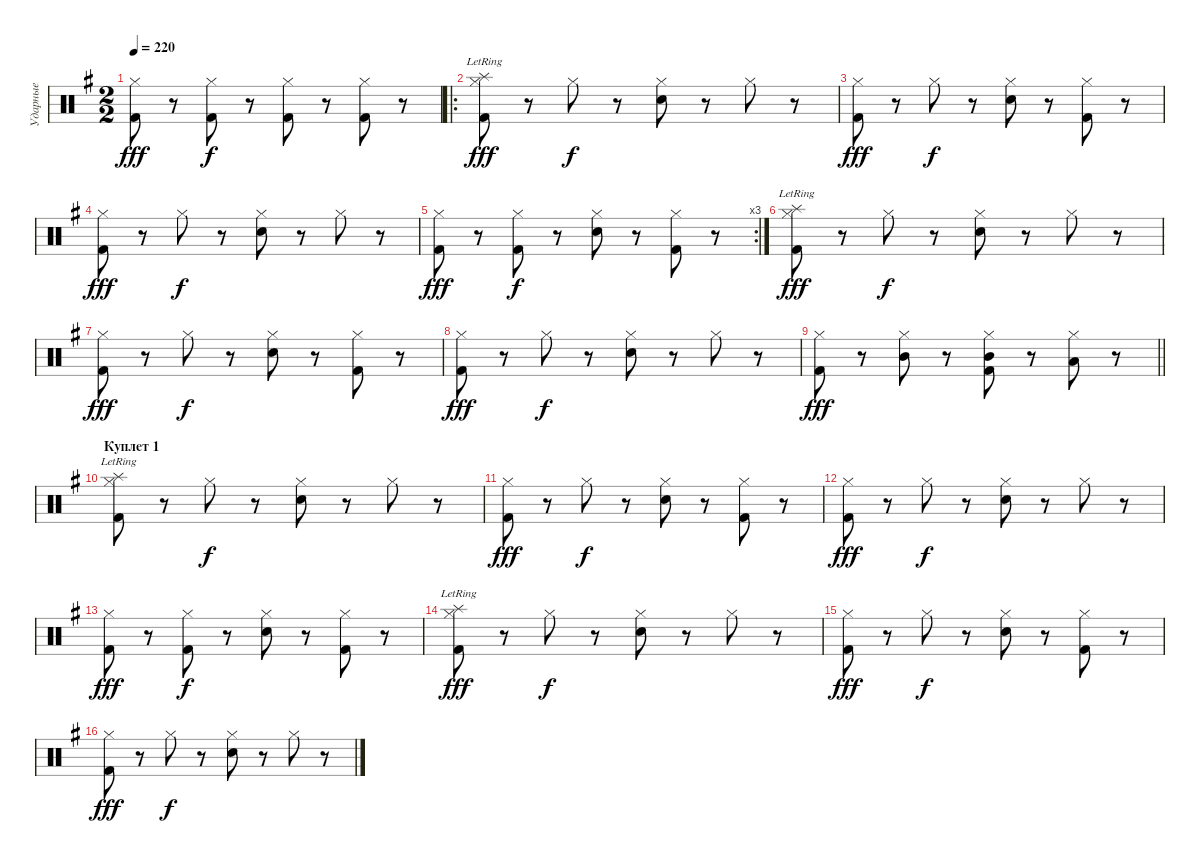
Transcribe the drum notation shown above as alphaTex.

\track ("Ударные" "Ударные") {instrument percussion}
\staff {score}
\articulation defaults
\ts (2 2)
\tempo 220
\clef neutral
\ks eminor
("Hi-Hat (closed)" "Kick (hit) 2").8{dy fff} r.8 ("Hi-Hat (closed)" "Kick (hit) 2").8{dy f} r.8 ("Hi-Hat (closed)" "Kick (hit) 2").8 r.8 ("Hi-Hat (closed)" "Kick (hit) 2").8 r.8 |
\ro
("Hi-Hat (closed)" "Splash (hit)"{lr} "Kick (hit) 2").8{dy fff} r.8 "Hi-Hat (closed)".8{dy f} r.8 ("Hi-Hat (closed)" "Snare (hit) 2").8 r.8 "Hi-Hat (closed)".8 r.8 |
("Hi-Hat (closed)" "Kick (hit) 2").8{dy fff} r.8 "Hi-Hat (closed)".8{dy f} r.8 ("Hi-Hat (closed)" "Snare (hit) 2").8 r.8 ("Hi-Hat (closed)" "Kick (hit) 2").8 r.8 |
("Hi-Hat (closed)" "Kick (hit) 2").8{dy fff} r.8 "Hi-Hat (closed)".8{dy f} r.8 ("Hi-Hat (closed)" "Snare (hit) 2").8 r.8 "Hi-Hat (closed)".8 r.8 |
\rc 3
("Hi-Hat (closed)" "Kick (hit) 2").8{dy fff} r.8 ("Hi-Hat (closed)" "Kick (hit) 2").8{dy f} r.8 ("Hi-Hat (closed)" "Snare (hit) 2").8 r.8 ("Hi-Hat (closed)" "Kick (hit) 2").8 r.8 |
("Hi-Hat (closed)" "Splash (hit)"{lr} "Kick (hit) 2").8{dy fff} r.8 "Hi-Hat (closed)".8{dy f} r.8 ("Hi-Hat (closed)" "Snare (hit) 2").8 r.8 "Hi-Hat (closed)".8 r.8 |
("Hi-Hat (closed)" "Kick (hit) 2").8{dy fff} r.8 "Hi-Hat (closed)".8{dy f} r.8 ("Hi-Hat (closed)" "Snare (hit) 2").8 r.8 ("Hi-Hat (closed)" "Kick (hit) 2").8 r.8 |
("Hi-Hat (closed)" "Kick (hit) 2").8{dy fff} r.8 "Hi-Hat (closed)".8{dy f} r.8 ("Hi-Hat (closed)" "Snare (hit) 2").8 r.8 "Hi-Hat (closed)".8 r.8 |
\barLineRight lightlight
("Hi-Hat (closed)" "Kick (hit) 2").8{dy fff} r.8 ("Hi-Hat (closed)" "Mid Tom (hit)").8 r.8 ("Hi-Hat (closed)" "Mid Tom (hit)" "Kick (hit) 2").8 r.8 ("Hi-Hat (closed)" "Low Tom (hit)").8 r.8 |
\section ("" "Куплет 1")
("Hi-Hat (closed)" "Splash (hit)"{lr} "Kick (hit) 2").8 r.8 "Hi-Hat (closed)".8{dy f} r.8 ("Hi-Hat (closed)" "Snare (hit) 2").8 r.8 "Hi-Hat (closed)".8 r.8 |
("Hi-Hat (closed)" "Kick (hit) 2").8{dy fff} r.8 "Hi-Hat (closed)".8{dy f} r.8 ("Hi-Hat (closed)" "Snare (hit) 2").8 r.8 ("Hi-Hat (closed)" "Kick (hit) 2").8 r.8 |
("Hi-Hat (closed)" "Kick (hit) 2").8{dy fff} r.8 "Hi-Hat (closed)".8{dy f} r.8 ("Hi-Hat (closed)" "Snare (hit) 2").8 r.8 "Hi-Hat (closed)".8 r.8 |
("Hi-Hat (closed)" "Kick (hit) 2").8{dy fff} r.8 ("Hi-Hat (closed)" "Kick (hit) 2").8{dy f} r.8 ("Hi-Hat (closed)" "Snare (hit) 2").8 r.8 ("Hi-Hat (closed)" "Kick (hit) 2").8 r.8 |
("Hi-Hat (closed)" "Splash (hit)"{lr} "Kick (hit) 2").8{dy fff} r.8 "Hi-Hat (closed)".8{dy f} r.8 ("Hi-Hat (closed)" "Snare (hit) 2").8 r.8 "Hi-Hat (closed)".8 r.8 |
("Hi-Hat (closed)" "Kick (hit) 2").8{dy fff} r.8 "Hi-Hat (closed)".8{dy f} r.8 ("Hi-Hat (closed)" "Snare (hit) 2").8 r.8 ("Hi-Hat (closed)" "Kick (hit) 2").8 r.8 |
("Hi-Hat (closed)" "Kick (hit) 2").8{dy fff} r.8 "Hi-Hat (closed)".8{dy f} r.8 ("Hi-Hat (closed)" "Snare (hit) 2").8 r.8 "Hi-Hat (closed)".8 r.8
